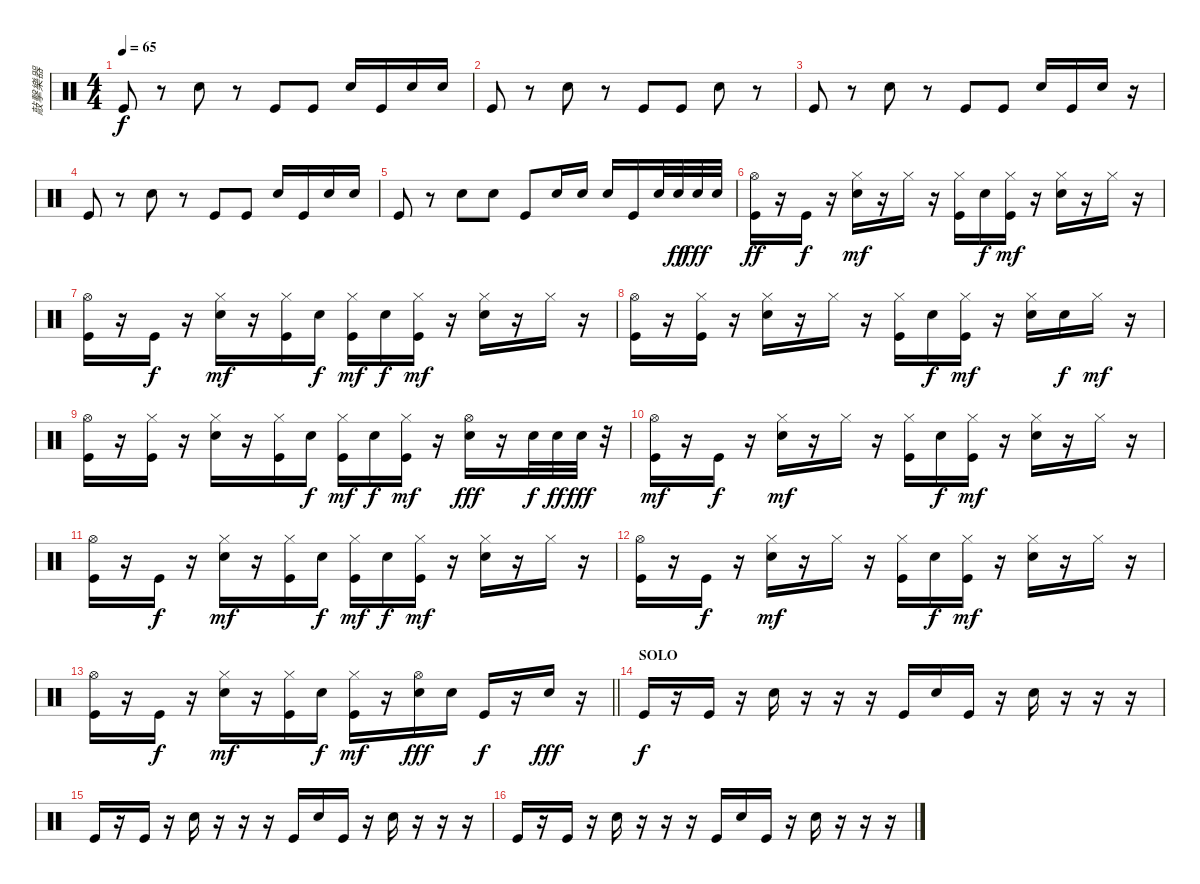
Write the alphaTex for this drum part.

\track ("敲擊樂器" "敲擊樂器") {instrument percussion}
\staff {score}
\articulation defaults
\ts (4 4)
\tempo 65
\clef neutral
\ks c "Kick (hit)".8{dy f}
r.8 "Electric Snare (hit)".8 r.8 "Kick (hit)".8 "Kick (hit)".8 "Electric Snare (hit)".16 "Kick (hit)".16 "Electric Snare (hit)".16 "Electric Snare (hit)".16 |
"Kick (hit)".8 r.8 "Electric Snare (hit)".8 r.8 "Kick (hit)".8 "Kick (hit)".8 "Electric Snare (hit)".8 r.8 |
"Kick (hit)".8 r.8 "Electric Snare (hit)".8 r.8 "Kick (hit)".8 "Kick (hit)".8 "Electric Snare (hit)".16 "Kick (hit)".16 "Electric Snare (hit)".16 r.16 |
"Kick (hit)".8 r.8 "Electric Snare (hit)".8 r.8 "Kick (hit)".8 "Kick (hit)".8 "Electric Snare (hit)".16 "Kick (hit)".16 "Electric Snare (hit)".16 "Electric Snare (hit)".16 |
"Kick (hit)".8 r.8 "Electric Snare (hit)".8 "Electric Snare (hit)".8 "Kick (hit)".8 "Electric Snare (hit)".16 "Electric Snare (hit)".16 "Electric Snare (hit)".16 "Kick (hit)".16 "Electric Snare (hit)".32 "Electric Snare (hit)".32{dy ff} "Electric Snare (hit)".32{dy fff} "Electric Snare (hit)".32 |
("Hi-Hat (open)" "Kick (hit)").16{dy ff} r.16 "Kick (hit)".16{dy f} r.16 ("Hi-Hat (closed)" "Electric Snare (hit)").16{dy mf} r.16 "Hi-Hat (closed)".16 r.16 ("Hi-Hat (closed)" "Kick (hit)").16 "Electric Snare (hit)".16{dy f} ("Hi-Hat (closed)" "Kick (hit)").16{dy mf} r.16 ("Hi-Hat (closed)" "Electric Snare (hit)").16 r.16 "Hi-Hat (closed)".16 r.16 |
("Hi-Hat (open)" "Kick (hit)").16 r.16 "Kick (hit)".16{dy f} r.16 ("Hi-Hat (closed)" "Electric Snare (hit)").16{dy mf} r.16 ("Hi-Hat (closed)" "Kick (hit)").16 "Electric Snare (hit)".16{dy f} ("Hi-Hat (closed)" "Kick (hit)").16{dy mf} "Electric Snare (hit)".16{dy f} ("Hi-Hat (closed)" "Kick (hit)").16{dy mf} r.16 ("Hi-Hat (closed)" "Electric Snare (hit)").16 r.16 "Hi-Hat (closed)".16 r.16 |
("Hi-Hat (open)" "Kick (hit)").16 r.16 ("Hi-Hat (closed)" "Kick (hit)").16 r.16 ("Hi-Hat (closed)" "Electric Snare (hit)").16 r.16 "Hi-Hat (closed)".16 r.16 ("Hi-Hat (closed)" "Kick (hit)").16 "Electric Snare (hit)".16{dy f} ("Hi-Hat (closed)" "Kick (hit)").16{dy mf} r.16 ("Hi-Hat (closed)" "Electric Snare (hit)").16 "Electric Snare (hit)".16{dy f} "Hi-Hat (closed)".16{dy mf} r.16 |
("Hi-Hat (open)" "Kick (hit)").16 r.16 ("Hi-Hat (closed)" "Kick (hit)").16 r.16 ("Hi-Hat (closed)" "Electric Snare (hit)").16 r.16 ("Hi-Hat (closed)" "Kick (hit)").16 "Electric Snare (hit)".16{dy f} ("Hi-Hat (closed)" "Kick (hit)").16{dy mf} "Electric Snare (hit)".16{dy f} ("Hi-Hat (closed)" "Kick (hit)").16{dy mf} r.16 ("Hi-Hat (open)" "Electric Snare (hit)").16{dy fff} r.16 "Electric Snare (hit)".32{dy f} "Electric Snare (hit)".32{dy ff} "Electric Snare (hit)".32{dy fff} r.32 |
("Hi-Hat (open)" "Kick (hit)").16{dy mf} r.16 "Kick (hit)".16{dy f} r.16 ("Hi-Hat (closed)" "Electric Snare (hit)").16{dy mf} r.16 "Hi-Hat (closed)".16 r.16 ("Hi-Hat (closed)" "Kick (hit)").16 "Electric Snare (hit)".16{dy f} ("Hi-Hat (closed)" "Kick (hit)").16{dy mf} r.16 ("Hi-Hat (closed)" "Electric Snare (hit)").16 r.16 "Hi-Hat (closed)".16 r.16 |
("Hi-Hat (open)" "Kick (hit)").16 r.16 "Kick (hit)".16{dy f} r.16 ("Hi-Hat (closed)" "Electric Snare (hit)").16{dy mf} r.16 ("Hi-Hat (closed)" "Kick (hit)").16 "Electric Snare (hit)".16{dy f} ("Hi-Hat (closed)" "Kick (hit)").16{dy mf} "Electric Snare (hit)".16{dy f} ("Hi-Hat (closed)" "Kick (hit)").16{dy mf} r.16 ("Hi-Hat (closed)" "Electric Snare (hit)").16 r.16 "Hi-Hat (closed)".16 r.16 |
("Hi-Hat (open)" "Kick (hit)").16 r.16 "Kick (hit)".16{dy f} r.16 ("Hi-Hat (closed)" "Electric Snare (hit)").16{dy mf} r.16 "Hi-Hat (closed)".16 r.16 ("Hi-Hat (closed)" "Kick (hit)").16 "Electric Snare (hit)".16{dy f} ("Hi-Hat (closed)" "Kick (hit)").16{dy mf} r.16 ("Hi-Hat (closed)" "Electric Snare (hit)").16 r.16 "Hi-Hat (closed)".16 r.16 |
\barLineRight lightlight
("Hi-Hat (open)" "Kick (hit)").16 r.16 "Kick (hit)".16{dy f} r.16 ("Hi-Hat (closed)" "Electric Snare (hit)").16{dy mf} r.16 ("Hi-Hat (closed)" "Kick (hit)").16 "Electric Snare (hit)".16{dy f} ("Hi-Hat (closed)" "Kick (hit)").16{dy mf} r.16 ("Hi-Hat (open)" "Electric Snare (hit)").16{dy fff} "Electric Snare (hit)".16 "Kick (hit)".16{dy f} r.16 "Electric Snare (hit)".16{dy fff} r.16 |
\section ("" "SOLO")
"Kick (hit)".16{dy f} r.16 "Kick (hit)".16 r.16 "Electric Snare (hit)".16 r.16 r.16 r.16 "Kick (hit)".16 "Electric Snare (hit)".16 "Kick (hit)".16 r.16 "Electric Snare (hit)".16 r.16 r.16 r.16 |
"Kick (hit)".16 r.16 "Kick (hit)".16 r.16 "Electric Snare (hit)".16 r.16 r.16 r.16 "Kick (hit)".16 "Electric Snare (hit)".16 "Kick (hit)".16 r.16 "Electric Snare (hit)".16 r.16 r.16 r.16 |
"Kick (hit)".16 r.16 "Kick (hit)".16 r.16 "Electric Snare (hit)".16 r.16 r.16 r.16 "Kick (hit)".16 "Electric Snare (hit)".16 "Kick (hit)".16 r.16 "Electric Snare (hit)".16 r.16 r.16 r.16
